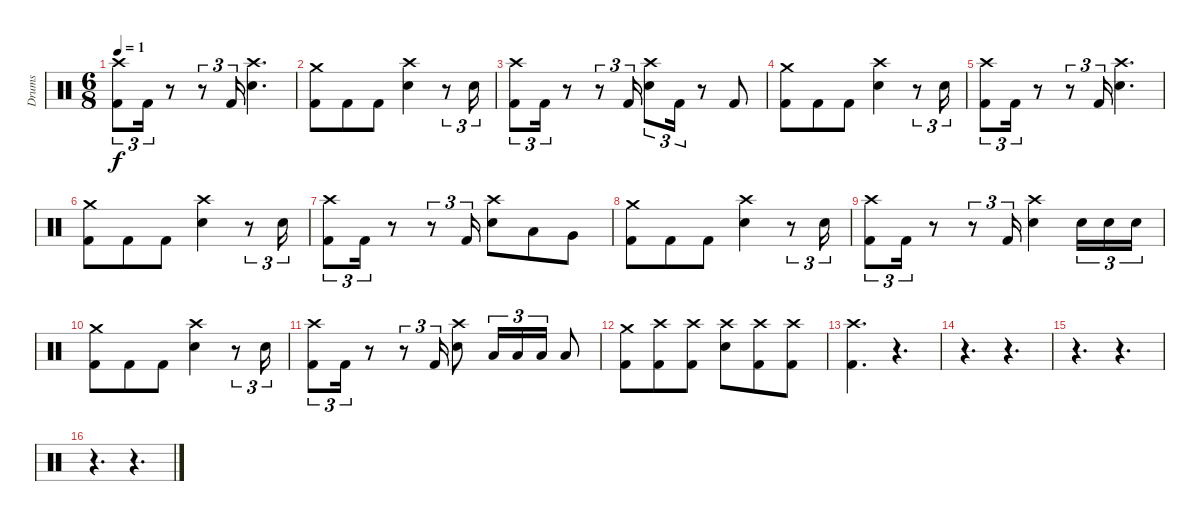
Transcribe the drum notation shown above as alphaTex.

\track ("Drums" "Drums") {instrument percussion}
\staff {score}
\articulation defaults
\ts (6 8)
\tempo 1
\clef neutral
\ks c
("Crash high (hit)" "Kick (hit) 2").8{tu (3 2) dy f} "Kick (hit) 2".16{tu (3 2)} r.8 r.8{tu (3 2)} "Kick (hit) 2".16{tu (3 2)} ("Crash high (hit)" "Snare (hit) 2").4{d} |
("Crash medium (hit)" "Kick (hit) 2").8 "Kick (hit) 2".8 "Kick (hit) 2".8 ("Crash high (hit)" "Snare (hit) 2").4 r.8{tu (3 2)} "Snare (hit) 2".16{tu (3 2)} |
("Crash high (hit)" "Kick (hit) 2").8{tu (3 2)} "Kick (hit) 2".16{tu (3 2)} r.8 r.8{tu (3 2)} "Kick (hit) 2".16{tu (3 2)} ("Crash high (hit)" "Snare (hit) 2").8{tu (3 2)} "Kick (hit) 2".16{tu (3 2)} r.8 "Kick (hit) 2".8 |
("Crash medium (hit)" "Kick (hit) 2").8 "Kick (hit) 2".8 "Kick (hit) 2".8 ("Crash high (hit)" "Snare (hit) 2").4 r.8{tu (3 2)} "Snare (hit) 2".16{tu (3 2)} |
("Crash high (hit)" "Kick (hit) 2").8{tu (3 2)} "Kick (hit) 2".16{tu (3 2)} r.8 r.8{tu (3 2)} "Kick (hit) 2".16{tu (3 2)} ("Crash high (hit)" "Snare (hit) 2").4{d} |
("Crash medium (hit)" "Kick (hit) 2").8 "Kick (hit) 2".8 "Kick (hit) 2".8 ("Crash high (hit)" "Snare (hit) 2").4 r.8{tu (3 2)} "Snare (hit) 2".16{tu (3 2)} |
("Crash high (hit)" "Kick (hit) 2").8{tu (3 2)} "Kick (hit) 2".16{tu (3 2)} r.8 r.8{tu (3 2)} "Kick (hit) 2".16{tu (3 2)} ("Crash high (hit)" "Snare (hit) 2").8 "Low Tom (hit)".8 "Very Low Tom (hit)".8 |
("Crash medium (hit)" "Kick (hit) 2").8 "Kick (hit) 2".8 "Kick (hit) 2".8 ("Crash high (hit)" "Snare (hit) 2").4 r.8{tu (3 2)} "Snare (hit) 2".16{tu (3 2)} |
("Crash high (hit)" "Kick (hit) 2").8{tu (3 2)} "Kick (hit) 2".16{tu (3 2)} r.8 r.8{tu (3 2)} "Kick (hit) 2".16{tu (3 2)} ("Crash high (hit)" "Snare (hit) 2").4 "Snare (hit) 2".16{tu (3 2)} "Snare (hit) 2".16{tu (3 2)} "Snare (hit) 2".16{tu (3 2)} |
("Crash medium (hit)" "Kick (hit) 2").8 "Kick (hit) 2".8 "Kick (hit) 2".8 ("Crash high (hit)" "Snare (hit) 2").4 r.8{tu (3 2)} "Snare (hit) 2".16{tu (3 2)} |
("Crash high (hit)" "Kick (hit) 2").8{tu (3 2)} "Kick (hit) 2".16{tu (3 2)} r.8 r.8{tu (3 2)} "Kick (hit) 2".16{tu (3 2)} ("Crash high (hit)" "Snare (hit) 2").8 "Low Tom (hit)".16{tu (3 2)} "Low Tom (hit)".16{tu (3 2)} "Low Tom (hit)".16{tu (3 2)} "Low Tom (hit)".8 |
("Crash medium (hit)" "Kick (hit) 2").8 ("Crash high (hit)" "Kick (hit) 2").8 ("Crash high (hit)" "Kick (hit) 2").8 ("Crash high (hit)" "Snare (hit) 2").8 ("Crash high (hit)" "Kick (hit) 2").8 ("Crash high (hit)" "Kick (hit) 2").8 |
("Crash high (hit)" "Kick (hit) 2").4{d} r.4{d} |
r.4{d} r.4{d} |
r.4{d} r.4{d} |
r.4{d} r.4{d}
